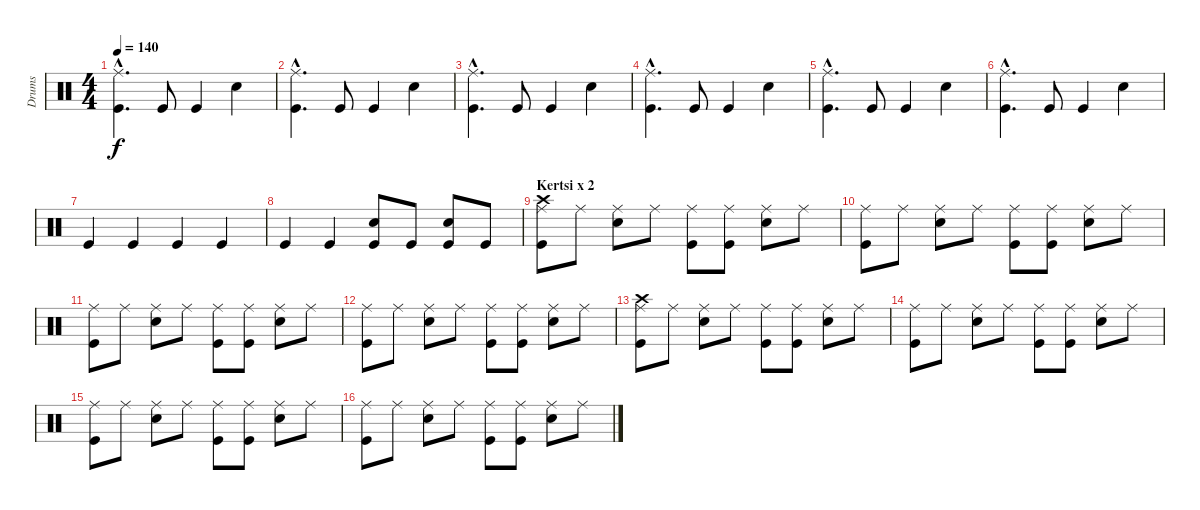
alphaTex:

\track ("Drums" "Drums") {instrument percussion}
\staff {score}
\articulation defaults
\ts (4 4)
\tempo 140
\clef neutral
\ks c
("Ride (middle)"{hac} "Kick (hit)"{hac}).4{d dy f} "Kick (hit)".8 "Kick (hit)".4 "Snare (hit) 2".4 |
("Ride (middle)"{hac} "Kick (hit)"{hac}).4{d} "Kick (hit)".8 "Kick (hit)".4 "Snare (hit) 2".4 |
("Ride (middle)"{hac} "Kick (hit)"{hac}).4{d} "Kick (hit)".8 "Kick (hit)".4 "Snare (hit) 2".4 |
("Ride (middle)"{hac} "Kick (hit)"{hac}).4{d} "Kick (hit)".8 "Kick (hit)".4 "Snare (hit) 2".4 |
("Ride (middle)"{hac} "Kick (hit)"{hac}).4{d} "Kick (hit)".8 "Kick (hit)".4 "Snare (hit) 2".4 |
("Ride (middle)"{hac} "Kick (hit)"{hac}).4{d} "Kick (hit)".8 "Kick (hit)".4 "Snare (hit) 2".4 |
"Kick (hit)".4 "Kick (hit)".4 "Kick (hit)".4 "Kick (hit)".4 |
"Kick (hit)".4 "Kick (hit)".4 ("Snare (hit) 2" "Kick (hit)").8 "Kick (hit)".8 ("Snare (hit) 2" "Kick (hit)").8 "Kick (hit)".8 |
\section ("" "Kertsi x 2")
("Ride (middle)" "Crash high (hit)" "Kick (hit)").8 "Ride (middle)".8 ("Ride (middle)" "Snare (hit) 2").8 "Ride (middle)".8 ("Ride (middle)" "Kick (hit)").8 ("Ride (middle)" "Kick (hit)").8 ("Ride (middle)" "Snare (hit) 2").8 "Ride (middle)".8 |
("Ride (middle)" "Kick (hit)").8 "Ride (middle)".8 ("Ride (middle)" "Snare (hit) 2").8 "Ride (middle)".8 ("Ride (middle)" "Kick (hit)").8 ("Ride (middle)" "Kick (hit)").8 ("Ride (middle)" "Snare (hit) 2").8 "Ride (middle)".8 |
("Ride (middle)" "Kick (hit)").8 "Ride (middle)".8 ("Ride (middle)" "Snare (hit) 2").8 "Ride (middle)".8 ("Ride (middle)" "Kick (hit)").8 ("Ride (middle)" "Kick (hit)").8 ("Ride (middle)" "Snare (hit) 2").8 "Ride (middle)".8 |
("Ride (middle)" "Kick (hit)").8 "Ride (middle)".8 ("Ride (middle)" "Snare (hit) 2").8 "Ride (middle)".8 ("Ride (middle)" "Kick (hit)").8 ("Ride (middle)" "Kick (hit)").8 ("Ride (middle)" "Snare (hit) 2").8 "Ride (middle)".8 |
("Ride (middle)" "Crash high (hit)" "Kick (hit)").8 "Ride (middle)".8 ("Ride (middle)" "Snare (hit) 2").8 "Ride (middle)".8 ("Ride (middle)" "Kick (hit)").8 ("Ride (middle)" "Kick (hit)").8 ("Ride (middle)" "Snare (hit) 2").8 "Ride (middle)".8 |
("Ride (middle)" "Kick (hit)").8 "Ride (middle)".8 ("Ride (middle)" "Snare (hit) 2").8 "Ride (middle)".8 ("Ride (middle)" "Kick (hit)").8 ("Ride (middle)" "Kick (hit)").8 ("Ride (middle)" "Snare (hit) 2").8 "Ride (middle)".8 |
("Ride (middle)" "Kick (hit)").8 "Ride (middle)".8 ("Ride (middle)" "Snare (hit) 2").8 "Ride (middle)".8 ("Ride (middle)" "Kick (hit)").8 ("Ride (middle)" "Kick (hit)").8 ("Ride (middle)" "Snare (hit) 2").8 "Ride (middle)".8 |
("Ride (middle)" "Kick (hit)").8 "Ride (middle)".8 ("Ride (middle)" "Snare (hit) 2").8 "Ride (middle)".8 ("Ride (middle)" "Kick (hit)").8 ("Ride (middle)" "Kick (hit)").8 ("Ride (middle)" "Snare (hit) 2").8 "Ride (middle)".8
